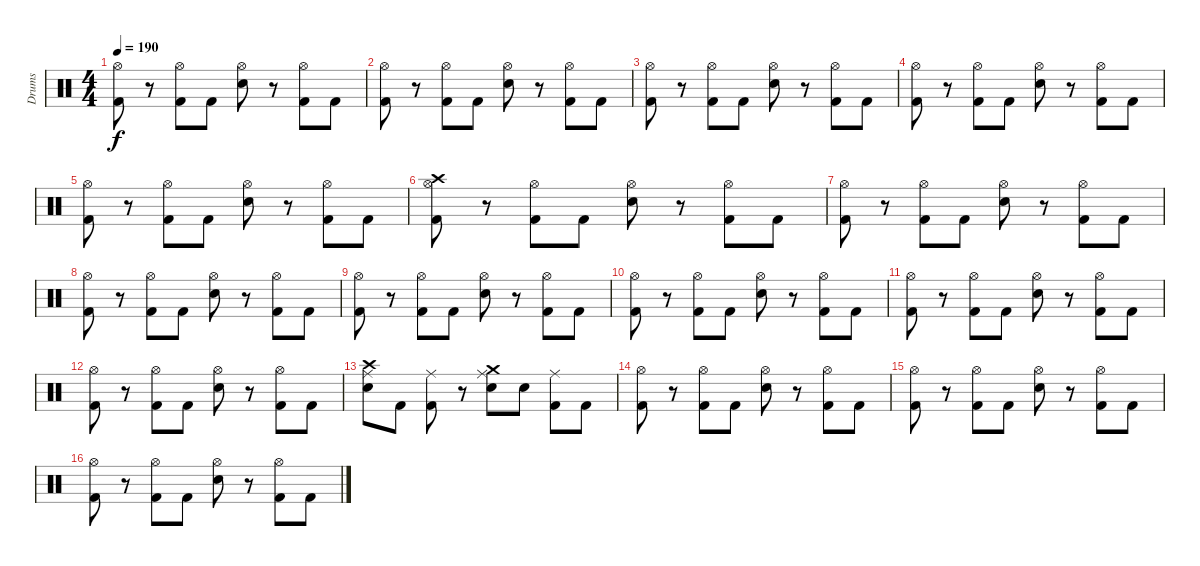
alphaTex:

\track ("Drums" "Drums") {instrument percussion}
\staff {score}
\articulation defaults
\ts (4 4)
\tempo 190
\clef neutral
\ks c
("Hi-Hat (open)" "Kick (hit) 2").8{dy f} r.8 ("Hi-Hat (open)" "Kick (hit) 2").8 "Kick (hit) 2".8 ("Hi-Hat (open)" "Snare (hit) 2").8 r.8 ("Hi-Hat (open)" "Kick (hit) 2").8 "Kick (hit) 2".8 |
("Hi-Hat (open)" "Kick (hit) 2").8 r.8 ("Hi-Hat (open)" "Kick (hit) 2").8 "Kick (hit) 2".8 ("Hi-Hat (open)" "Snare (hit) 2").8 r.8 ("Hi-Hat (open)" "Kick (hit) 2").8 "Kick (hit) 2".8 |
("Hi-Hat (open)" "Kick (hit) 2").8 r.8 ("Hi-Hat (open)" "Kick (hit) 2").8 "Kick (hit) 2".8 ("Hi-Hat (open)" "Snare (hit) 2").8 r.8 ("Hi-Hat (open)" "Kick (hit) 2").8 "Kick (hit) 2".8 |
("Hi-Hat (open)" "Kick (hit) 2").8 r.8 ("Hi-Hat (open)" "Kick (hit) 2").8 "Kick (hit) 2".8 ("Hi-Hat (open)" "Snare (hit) 2").8 r.8 ("Hi-Hat (open)" "Kick (hit) 2").8 "Kick (hit) 2".8 |
("Hi-Hat (open)" "Kick (hit) 2").8 r.8 ("Hi-Hat (open)" "Kick (hit) 2").8 "Kick (hit) 2".8 ("Hi-Hat (open)" "Snare (hit) 2").8 r.8 ("Hi-Hat (open)" "Kick (hit) 2").8 "Kick (hit) 2".8 |
("Crash high (hit)" "Hi-Hat (open)" "Kick (hit) 2").8 r.8 ("Hi-Hat (open)" "Kick (hit) 2").8 "Kick (hit) 2".8 ("Hi-Hat (open)" "Snare (hit) 2").8 r.8 ("Hi-Hat (open)" "Kick (hit) 2").8 "Kick (hit) 2".8 |
("Hi-Hat (open)" "Kick (hit) 2").8 r.8 ("Hi-Hat (open)" "Kick (hit) 2").8 "Kick (hit) 2".8 ("Hi-Hat (open)" "Snare (hit) 2").8 r.8 ("Hi-Hat (open)" "Kick (hit) 2").8 "Kick (hit) 2".8 |
("Hi-Hat (open)" "Kick (hit) 2").8 r.8 ("Hi-Hat (open)" "Kick (hit) 2").8 "Kick (hit) 2".8 ("Hi-Hat (open)" "Snare (hit) 2").8 r.8 ("Hi-Hat (open)" "Kick (hit) 2").8 "Kick (hit) 2".8 |
("Hi-Hat (open)" "Kick (hit) 2").8 r.8 ("Hi-Hat (open)" "Kick (hit) 2").8 "Kick (hit) 2".8 ("Hi-Hat (open)" "Snare (hit) 2").8 r.8 ("Hi-Hat (open)" "Kick (hit) 2").8 "Kick (hit) 2".8 |
("Hi-Hat (open)" "Kick (hit) 2").8 r.8 ("Hi-Hat (open)" "Kick (hit) 2").8 "Kick (hit) 2".8 ("Hi-Hat (open)" "Snare (hit) 2").8 r.8 ("Hi-Hat (open)" "Kick (hit) 2").8 "Kick (hit) 2".8 |
("Hi-Hat (open)" "Kick (hit) 2").8 r.8 ("Hi-Hat (open)" "Kick (hit) 2").8 "Kick (hit) 2".8 ("Hi-Hat (open)" "Snare (hit) 2").8 r.8 ("Hi-Hat (open)" "Kick (hit) 2").8 "Kick (hit) 2".8 |
("Hi-Hat (open)" "Kick (hit) 2").8 r.8 ("Hi-Hat (open)" "Kick (hit) 2").8 "Kick (hit) 2".8 ("Hi-Hat (open)" "Snare (hit) 2").8 r.8 ("Hi-Hat (open)" "Kick (hit) 2").8 "Kick (hit) 2".8 |
("Crash high (hit)" "Ride (middle)" "Snare (hit) 2").8 "Kick (hit) 2".8 ("Ride (middle)" "Kick (hit) 2").8 r.8 ("Crash medium (hit)" "Ride (middle)" "Snare (hit) 2").8 "Snare (hit) 2".8 ("Ride (middle)" "Kick (hit) 2").8 "Kick (hit) 2".8 |
("Hi-Hat (open)" "Kick (hit) 2").8 r.8 ("Hi-Hat (open)" "Kick (hit) 2").8 "Kick (hit) 2".8 ("Hi-Hat (open)" "Snare (hit) 2").8 r.8 ("Hi-Hat (open)" "Kick (hit) 2").8 "Kick (hit) 2".8 |
("Hi-Hat (open)" "Kick (hit) 2").8 r.8 ("Hi-Hat (open)" "Kick (hit) 2").8 "Kick (hit) 2".8 ("Hi-Hat (open)" "Snare (hit) 2").8 r.8 ("Hi-Hat (open)" "Kick (hit) 2").8 "Kick (hit) 2".8 |
("Hi-Hat (open)" "Kick (hit) 2").8 r.8 ("Hi-Hat (open)" "Kick (hit) 2").8 "Kick (hit) 2".8 ("Hi-Hat (open)" "Snare (hit) 2").8 r.8 ("Hi-Hat (open)" "Kick (hit) 2").8 "Kick (hit) 2".8
